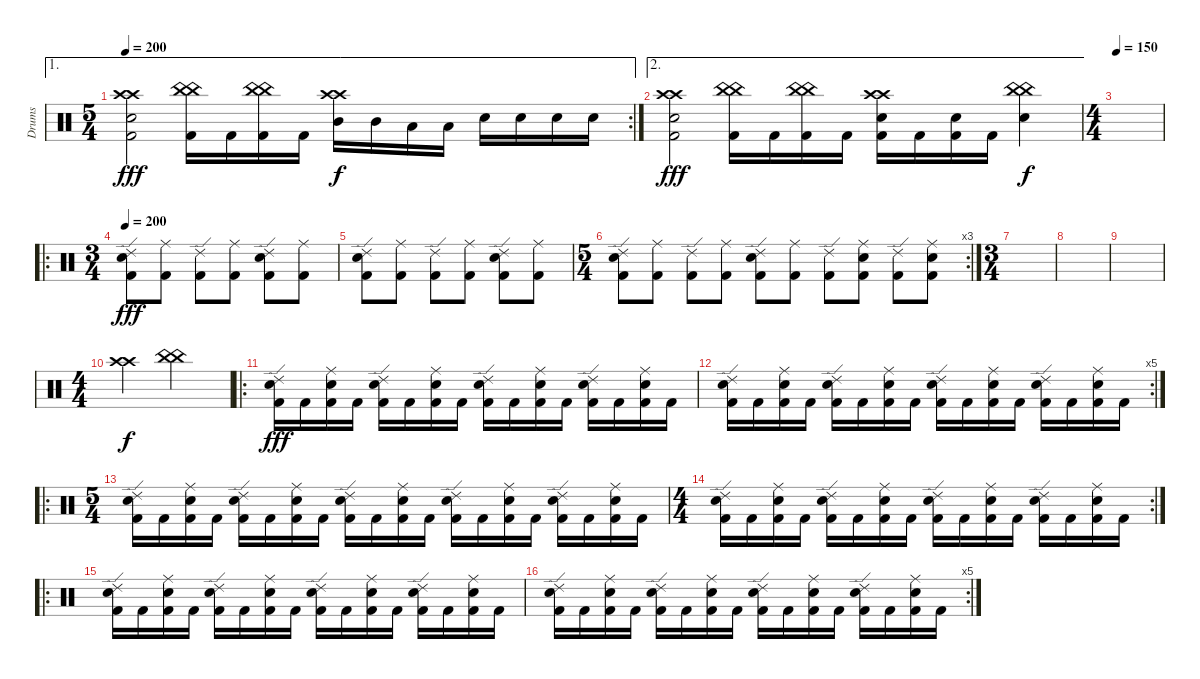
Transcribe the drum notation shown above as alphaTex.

\track ("Drums" "Drums") {instrument percussion}
\staff {score}
\articulation defaults
\ae 1
\rc 2
\ts (5 4)
\tempo 200
\clef neutral
\ks c
("Crash high (hit)" "Electric Snare (hit)" "Crash high (hit)" "Kick (hit) 2").2{dy fff} ("China (hit)" "China (hit)" "Kick (hit) 2").16 "Kick (hit) 2".16 ("China (hit)" "China (hit)" "Kick (hit) 2").16 "Kick (hit) 2".16 ("Crash high (hit)" "Crash high (hit)" "Mid Tom (hit)").16{dy f} "Mid Tom (hit)".16 "Low Tom (hit)".16 "Low Tom (hit)".16 "Electric Snare (hit)".16 "Electric Snare (hit)".16 "Electric Snare (hit)".16 "Electric Snare (hit)".16 |
\ae 2
("Crash high (hit)" "Electric Snare (hit)" "Crash high (hit)" "Kick (hit) 2").2{dy fff} ("China (hit)" "China (hit)" "Kick (hit) 2").16 "Kick (hit) 2".16 ("China (hit)" "China (hit)" "Kick (hit) 2").16 "Kick (hit) 2".16 ("Crash high (hit)" "Electric Snare (hit)" "Crash high (hit)" "Kick (hit) 2").16 "Kick (hit) 2".16 ("Electric Snare (hit)" "Kick (hit) 2").16 "Kick (hit) 2".16 ("China (hit)" "Electric Snare (hit)" "China (hit)").4{dy f} |
\ts (4 4)
\tempo 150
|
\ro
\ts (3 4)
\tempo 200
("Ride (edge) 2" "Electric Snare (hit)" "Kick (hit) 2").8{dy fff} ("Ride (middle)" "Kick (hit) 2").8 ("Ride (edge) 2" "Kick (hit) 2").8 ("Ride (middle)" "Kick (hit) 2").8 ("Ride (edge) 2" "Electric Snare (hit)" "Kick (hit) 2").8 ("Ride (middle)" "Kick (hit) 2").8 |
("Ride (edge) 2" "Electric Snare (hit)" "Kick (hit) 2").8 ("Ride (middle)" "Kick (hit) 2").8 ("Ride (edge) 2" "Kick (hit) 2").8 ("Ride (middle)" "Kick (hit) 2").8 ("Ride (edge) 2" "Electric Snare (hit)" "Kick (hit) 2").8 ("Ride (middle)" "Kick (hit) 2").8 |
\rc 3
\ts (5 4)
("Ride (edge) 2" "Electric Snare (hit)" "Kick (hit) 2").8 ("Ride (middle)" "Kick (hit) 2").8 ("Ride (edge) 2" "Kick (hit) 2").8 ("Ride (middle)" "Kick (hit) 2").8 ("Ride (edge) 2" "Electric Snare (hit)" "Kick (hit) 2").8 ("Ride (middle)" "Kick (hit) 2").8 ("Ride (edge) 2" "Kick (hit) 2").8 ("Ride (middle)" "Electric Snare (hit)" "Kick (hit) 2").8 ("Ride (edge) 2" "Kick (hit) 2").8 ("Ride (middle)" "Electric Snare (hit)" "Kick (hit) 2").8 |
\ts (3 4)
|
|
|
\ts (4 4)
("Crash high (hit)" "Crash high (hit)").2{dy f} ("China (hit)" "China (hit)").2 |
\ro
("Ride (edge) 2" "Electric Snare (hit)" "Kick (hit) 2").16{dy fff} "Kick (hit) 2".16 ("Ride (middle)" "Electric Snare (hit)" "Kick (hit) 2").16 "Kick (hit) 2".16 ("Ride (edge) 2" "Electric Snare (hit)" "Kick (hit) 2").16 "Kick (hit) 2".16 ("Ride (middle)" "Electric Snare (hit)" "Kick (hit) 2").16 "Kick (hit) 2".16 ("Ride (edge) 2" "Electric Snare (hit)" "Kick (hit) 2").16 "Kick (hit) 2".16 ("Ride (middle)" "Electric Snare (hit)" "Kick (hit) 2").16 "Kick (hit) 2".16 ("Ride (edge) 2" "Electric Snare (hit)" "Kick (hit) 2").16 "Kick (hit) 2".16 ("Ride (middle)" "Electric Snare (hit)" "Kick (hit) 2").16 "Kick (hit) 2".16 |
\rc 5
("Ride (edge) 2" "Electric Snare (hit)" "Kick (hit) 2").16 "Kick (hit) 2".16 ("Ride (middle)" "Electric Snare (hit)" "Kick (hit) 2").16 "Kick (hit) 2".16 ("Ride (edge) 2" "Electric Snare (hit)" "Kick (hit) 2").16 "Kick (hit) 2".16 ("Ride (middle)" "Electric Snare (hit)" "Kick (hit) 2").16 "Kick (hit) 2".16 ("Ride (edge) 2" "Electric Snare (hit)" "Kick (hit) 2").16 "Kick (hit) 2".16 ("Ride (middle)" "Electric Snare (hit)" "Kick (hit) 2").16 "Kick (hit) 2".16 ("Ride (edge) 2" "Electric Snare (hit)" "Kick (hit) 2").16 "Kick (hit) 2".16 ("Ride (middle)" "Electric Snare (hit)" "Kick (hit) 2").16 "Kick (hit) 2".16 |
\ro
\ts (5 4)
("Ride (edge) 2" "Electric Snare (hit)" "Kick (hit) 2").16 "Kick (hit) 2".16 ("Ride (middle)" "Electric Snare (hit)" "Kick (hit) 2").16 "Kick (hit) 2".16 ("Ride (edge) 2" "Electric Snare (hit)" "Kick (hit) 2").16 "Kick (hit) 2".16 ("Ride (middle)" "Electric Snare (hit)" "Kick (hit) 2").16 "Kick (hit) 2".16 ("Ride (edge) 2" "Electric Snare (hit)" "Kick (hit) 2").16 "Kick (hit) 2".16 ("Ride (middle)" "Electric Snare (hit)" "Kick (hit) 2").16 "Kick (hit) 2".16 ("Ride (edge) 2" "Electric Snare (hit)" "Kick (hit) 2").16 "Kick (hit) 2".16 ("Ride (middle)" "Electric Snare (hit)" "Kick (hit) 2").16 "Kick (hit) 2".16 ("Ride (edge) 2" "Electric Snare (hit)" "Kick (hit) 2").16 "Kick (hit) 2".16 ("Ride (middle)" "Electric Snare (hit)" "Kick (hit) 2").16 "Kick (hit) 2".16 |
\rc 2
\ts (4 4)
("Ride (edge) 2" "Electric Snare (hit)" "Kick (hit) 2").16 "Kick (hit) 2".16 ("Ride (middle)" "Electric Snare (hit)" "Kick (hit) 2").16 "Kick (hit) 2".16 ("Ride (edge) 2" "Electric Snare (hit)" "Kick (hit) 2").16 "Kick (hit) 2".16 ("Ride (middle)" "Electric Snare (hit)" "Kick (hit) 2").16 "Kick (hit) 2".16 ("Ride (edge) 2" "Electric Snare (hit)" "Kick (hit) 2").16 "Kick (hit) 2".16 ("Ride (middle)" "Electric Snare (hit)" "Kick (hit) 2").16 "Kick (hit) 2".16 ("Ride (edge) 2" "Electric Snare (hit)" "Kick (hit) 2").16 "Kick (hit) 2".16 ("Ride (middle)" "Electric Snare (hit)" "Kick (hit) 2").16 "Kick (hit) 2".16 |
\ro
("Ride (edge) 2" "Electric Snare (hit)" "Kick (hit) 2").16 "Kick (hit) 2".16 ("Ride (middle)" "Electric Snare (hit)" "Kick (hit) 2").16 "Kick (hit) 2".16 ("Ride (edge) 2" "Electric Snare (hit)" "Kick (hit) 2").16 "Kick (hit) 2".16 ("Ride (middle)" "Electric Snare (hit)" "Kick (hit) 2").16 "Kick (hit) 2".16 ("Ride (edge) 2" "Electric Snare (hit)" "Kick (hit) 2").16 "Kick (hit) 2".16 ("Ride (middle)" "Electric Snare (hit)" "Kick (hit) 2").16 "Kick (hit) 2".16 ("Ride (edge) 2" "Electric Snare (hit)" "Kick (hit) 2").16 "Kick (hit) 2".16 ("Ride (middle)" "Electric Snare (hit)" "Kick (hit) 2").16 "Kick (hit) 2".16 |
\rc 5
("Ride (edge) 2" "Electric Snare (hit)" "Kick (hit) 2").16 "Kick (hit) 2".16 ("Ride (middle)" "Electric Snare (hit)" "Kick (hit) 2").16 "Kick (hit) 2".16 ("Ride (edge) 2" "Electric Snare (hit)" "Kick (hit) 2").16 "Kick (hit) 2".16 ("Ride (middle)" "Electric Snare (hit)" "Kick (hit) 2").16 "Kick (hit) 2".16 ("Ride (edge) 2" "Electric Snare (hit)" "Kick (hit) 2").16 "Kick (hit) 2".16 ("Ride (middle)" "Electric Snare (hit)" "Kick (hit) 2").16 "Kick (hit) 2".16 ("Ride (edge) 2" "Electric Snare (hit)" "Kick (hit) 2").16 "Kick (hit) 2".16 ("Ride (middle)" "Electric Snare (hit)" "Kick (hit) 2").16 "Kick (hit) 2".16
